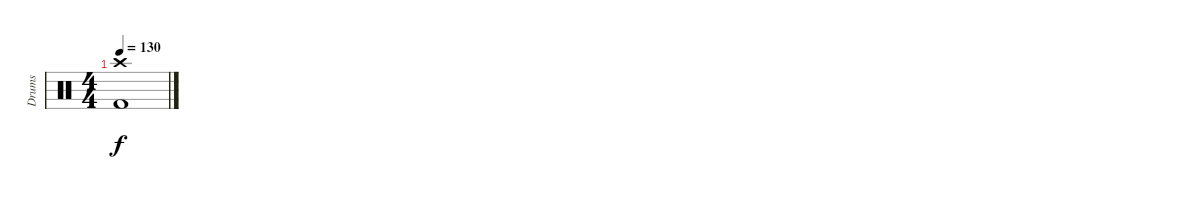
\track ("Drums" "Drums") {instrument percussion}
\staff {score}
\articulation defaults
\ts (4 4)
\tempo 130
\clef neutral
\ks c
("Crash high (hit)" "Kick (hit) 2").1{dy f}
